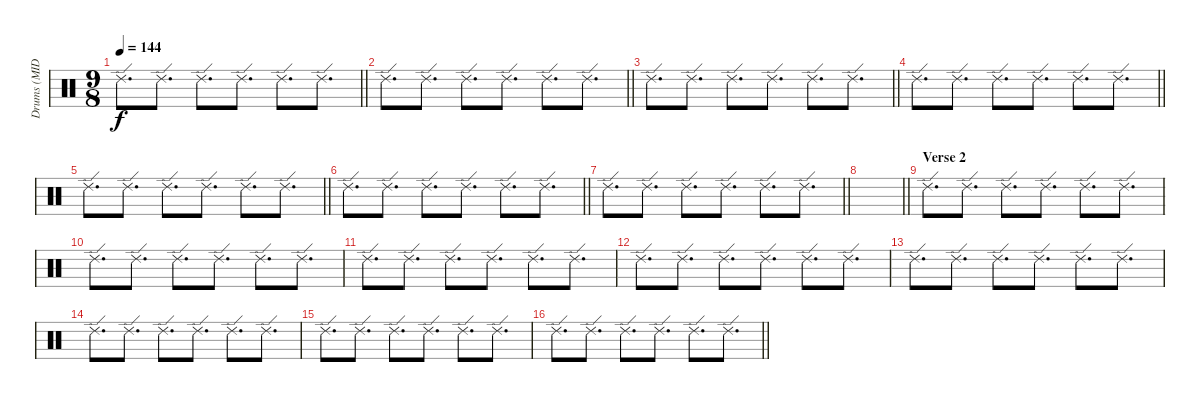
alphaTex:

\track ("Drums (MIDI!)" "Drums (MID") {instrument percussion}
\staff {score}
\articulation defaults
\ts (9 8)
\tempo 144
\clef neutral
\barLineRight lightlight
\ks c "Ride (edge) 2".8{d dy f} "Ride (edge) 2".8{d} "Ride (edge) 2".8{d} "Ride (edge) 2".8{d} "Ride (edge) 2".8{d} "Ride (edge) 2".8{d}
|
\barLineRight lightlight "Ride (edge) 2".8{d} "Ride (edge) 2".8{d} "Ride (edge) 2".8{d} "Ride (edge) 2".8{d} "Ride (edge) 2".8{d} "Ride (edge) 2".8{d}
|
\barLineRight lightlight "Ride (edge) 2".8{d} "Ride (edge) 2".8{d} "Ride (edge) 2".8{d} "Ride (edge) 2".8{d} "Ride (edge) 2".8{d} "Ride (edge) 2".8{d}
|
\barLineRight lightlight "Ride (edge) 2".8{d} "Ride (edge) 2".8{d} "Ride (edge) 2".8{d} "Ride (edge) 2".8{d} "Ride (edge) 2".8{d} "Ride (edge) 2".8{d}
|
\barLineRight lightlight "Ride (edge) 2".8{d} "Ride (edge) 2".8{d} "Ride (edge) 2".8{d} "Ride (edge) 2".8{d} "Ride (edge) 2".8{d} "Ride (edge) 2".8{d}
|
\barLineRight lightlight "Ride (edge) 2".8{d} "Ride (edge) 2".8{d} "Ride (edge) 2".8{d} "Ride (edge) 2".8{d} "Ride (edge) 2".8{d} "Ride (edge) 2".8{d}
|
\barLineRight lightlight "Ride (edge) 2".8{d} "Ride (edge) 2".8{d} "Ride (edge) 2".8{d} "Ride (edge) 2".8{d} "Ride (edge) 2".8{d} "Ride (edge) 2".8{d}
|
\barLineRight lightlight
|
\section ("" "Verse 2")
"Ride (edge) 2".8{d} "Ride (edge) 2".8{d} "Ride (edge) 2".8{d} "Ride (edge) 2".8{d} "Ride (edge) 2".8{d} "Ride (edge) 2".8{d} |
"Ride (edge) 2".8{d} "Ride (edge) 2".8{d} "Ride (edge) 2".8{d} "Ride (edge) 2".8{d} "Ride (edge) 2".8{d} "Ride (edge) 2".8{d} |
"Ride (edge) 2".8{d} "Ride (edge) 2".8{d} "Ride (edge) 2".8{d} "Ride (edge) 2".8{d} "Ride (edge) 2".8{d} "Ride (edge) 2".8{d} |
"Ride (edge) 2".8{d} "Ride (edge) 2".8{d} "Ride (edge) 2".8{d} "Ride (edge) 2".8{d} "Ride (edge) 2".8{d} "Ride (edge) 2".8{d} |
"Ride (edge) 2".8{d} "Ride (edge) 2".8{d} "Ride (edge) 2".8{d} "Ride (edge) 2".8{d} "Ride (edge) 2".8{d} "Ride (edge) 2".8{d} |
"Ride (edge) 2".8{d} "Ride (edge) 2".8{d} "Ride (edge) 2".8{d} "Ride (edge) 2".8{d} "Ride (edge) 2".8{d} "Ride (edge) 2".8{d} |
"Ride (edge) 2".8{d} "Ride (edge) 2".8{d} "Ride (edge) 2".8{d} "Ride (edge) 2".8{d} "Ride (edge) 2".8{d} "Ride (edge) 2".8{d} |
\barLineRight lightlight "Ride (edge) 2".8{d} "Ride (edge) 2".8{d} "Ride (edge) 2".8{d} "Ride (edge) 2".8{d} "Ride (edge) 2".8{d} "Ride (edge) 2".8{d}
